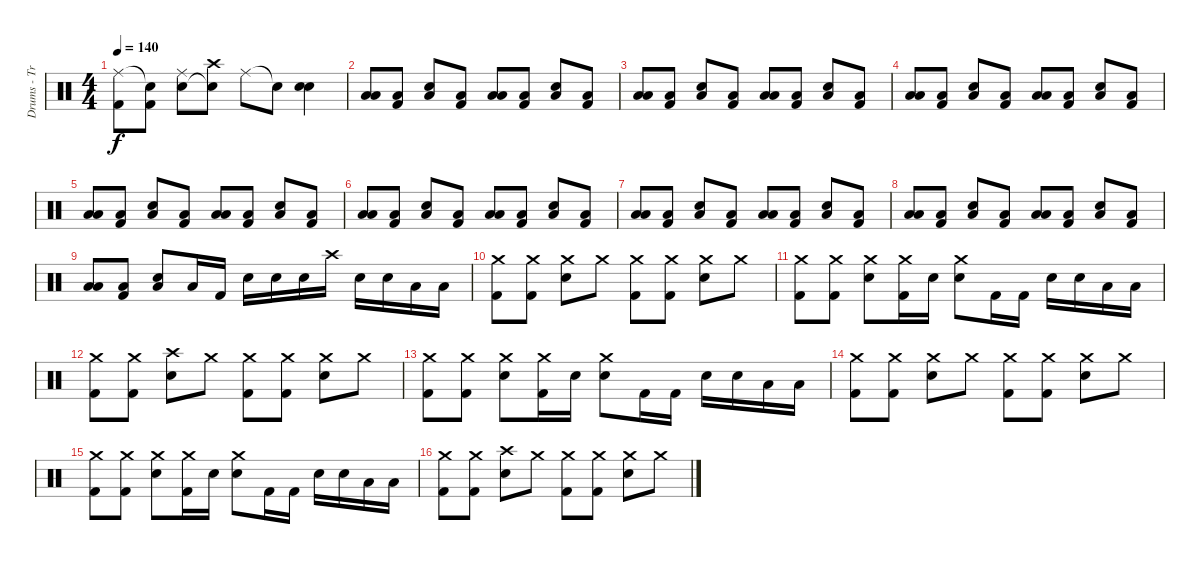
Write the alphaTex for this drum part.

\track ("Drums - Travis Barker" "Drums - Tr") {instrument percussion}
\staff {score}
\articulation defaults
\ts (4 4)
\tempo 140
\clef neutral
\ks c
("Ride (middle)" "Kick (hit) 2").8{dy f} ("Snare (hit)"{t} "Kick (hit) 2").8 ("Ride (middle)" "Snare (hit) 2").8 ("Crash high (hit)" "Snare (hit)"{t}).8 "Ride (middle)".8 "Snare (hit)"{t}.8 ("Snare (hit) 2" "Snare (hit) 2").4 |
("Low Tom (hit)" "Low Floor Tom (hit)").8 ("Low Floor Tom (hit)" "Kick (hit) 2").8 ("Snare (hit) 2" "Low Floor Tom (hit)").8 ("Low Floor Tom (hit)" "Kick (hit) 2").8 ("Low Tom (hit)" "Low Floor Tom (hit)").8 ("Low Floor Tom (hit)" "Kick (hit) 2").8 ("Snare (hit) 2" "Low Floor Tom (hit)").8 ("Kick (hit) 2" "Low Floor Tom (hit)").8 |
("Low Tom (hit)" "Low Floor Tom (hit)").8 ("Low Floor Tom (hit)" "Kick (hit) 2").8 ("Snare (hit) 2" "Low Floor Tom (hit)").8 ("Low Floor Tom (hit)" "Kick (hit) 2").8 ("Low Tom (hit)" "Low Floor Tom (hit)").8 ("Low Floor Tom (hit)" "Kick (hit) 2").8 ("Snare (hit) 2" "Low Floor Tom (hit)").8 ("Kick (hit) 2" "Low Floor Tom (hit)").8 |
("Low Tom (hit)" "Low Floor Tom (hit)").8 ("Low Floor Tom (hit)" "Kick (hit) 2").8 ("Snare (hit) 2" "Low Floor Tom (hit)").8 ("Low Floor Tom (hit)" "Kick (hit) 2").8 ("Low Tom (hit)" "Low Floor Tom (hit)").8 ("Low Floor Tom (hit)" "Kick (hit) 2").8 ("Snare (hit) 2" "Low Floor Tom (hit)").8 ("Kick (hit) 2" "Low Floor Tom (hit)").8 |
("Low Tom (hit)" "Low Floor Tom (hit)").8 ("Low Floor Tom (hit)" "Kick (hit) 2").8 ("Snare (hit) 2" "Low Floor Tom (hit)").8 ("Low Floor Tom (hit)" "Kick (hit) 2").8 ("Low Tom (hit)" "Low Floor Tom (hit)").8 ("Low Floor Tom (hit)" "Kick (hit) 2").8 ("Snare (hit) 2" "Low Floor Tom (hit)").8 ("Kick (hit) 2" "Low Floor Tom (hit)").8 |
("Low Tom (hit)" "Low Floor Tom (hit)").8 ("Low Floor Tom (hit)" "Kick (hit) 2").8 ("Snare (hit) 2" "Low Floor Tom (hit)").8 ("Low Floor Tom (hit)" "Kick (hit) 2").8 ("Low Tom (hit)" "Low Floor Tom (hit)").8 ("Low Floor Tom (hit)" "Kick (hit) 2").8 ("Snare (hit) 2" "Low Floor Tom (hit)").8 ("Kick (hit) 2" "Low Floor Tom (hit)").8 |
("Low Tom (hit)" "Low Floor Tom (hit)").8 ("Low Floor Tom (hit)" "Kick (hit) 2").8 ("Snare (hit) 2" "Low Floor Tom (hit)").8 ("Low Floor Tom (hit)" "Kick (hit) 2").8 ("Low Tom (hit)" "Low Floor Tom (hit)").8 ("Low Floor Tom (hit)" "Kick (hit) 2").8 ("Snare (hit) 2" "Low Floor Tom (hit)").8 ("Kick (hit) 2" "Low Floor Tom (hit)").8 |
("Low Tom (hit)" "Low Floor Tom (hit)").8 ("Low Floor Tom (hit)" "Kick (hit) 2").8 ("Snare (hit) 2" "Low Floor Tom (hit)").8 ("Low Floor Tom (hit)" "Kick (hit) 2").8 ("Low Tom (hit)" "Low Floor Tom (hit)").8 ("Low Floor Tom (hit)" "Kick (hit) 2").8 ("Snare (hit) 2" "Low Floor Tom (hit)").8 ("Kick (hit) 2" "Low Floor Tom (hit)").8 |
("Low Tom (hit)" "Low Floor Tom (hit)").8 ("Low Floor Tom (hit)" "Kick (hit) 2").8 ("Snare (hit) 2" "Low Floor Tom (hit)").8 "Low Floor Tom (hit)".16 "Kick (hit) 2".16 "Snare (hit) 2".16 "Snare (hit) 2".16 "Snare (hit) 2".16 "Crash high (hit)".16 "Snare (hit) 2".16 "Snare (hit) 2".16 "Low Tom (hit)".16 "Low Tom (hit)".16 |
("Crash medium (hit)" "Kick (hit) 2").8 ("Crash medium (hit)" "Kick (hit) 2").8 ("Crash medium (hit)" "Snare (hit) 2").8 "Crash medium (hit)".8 ("Crash medium (hit)" "Kick (hit) 2").8 ("Crash medium (hit)" "Kick (hit) 2").8 ("Crash medium (hit)" "Snare (hit) 2").8 "Crash medium (hit)".8 |
("Crash medium (hit)" "Kick (hit) 2").8 ("Crash medium (hit)" "Kick (hit) 2").8 ("Crash medium (hit)" "Snare (hit) 2").8 ("Crash medium (hit)" "Kick (hit) 2").16 "Snare (hit) 2".16 ("Crash medium (hit)" "Snare (hit) 2").8 "Kick (hit) 2".16 "Kick (hit) 2".16 "Snare (hit) 2".16 "Snare (hit) 2".16 "Low Tom (hit)".16 "Low Tom (hit)".16 |
("Crash medium (hit)" "Kick (hit) 2").8 ("Crash medium (hit)" "Kick (hit) 2").8 ("Crash high (hit)" "Snare (hit) 2").8 "Crash medium (hit)".8 ("Crash medium (hit)" "Kick (hit) 2").8 ("Crash medium (hit)" "Kick (hit) 2").8 ("Crash medium (hit)" "Snare (hit) 2").8 "Crash medium (hit)".8 |
("Crash medium (hit)" "Kick (hit) 2").8 ("Crash medium (hit)" "Kick (hit) 2").8 ("Crash medium (hit)" "Snare (hit) 2").8 ("Crash medium (hit)" "Kick (hit) 2").16 "Snare (hit) 2".16 ("Crash medium (hit)" "Snare (hit) 2").8 "Kick (hit) 2".16 "Kick (hit) 2".16 "Snare (hit) 2".16 "Snare (hit) 2".16 "Low Tom (hit)".16 "Low Tom (hit)".16 |
("Crash medium (hit)" "Kick (hit) 2").8 ("Crash medium (hit)" "Kick (hit) 2").8 ("Crash medium (hit)" "Snare (hit) 2").8 "Crash medium (hit)".8 ("Crash medium (hit)" "Kick (hit) 2").8 ("Crash medium (hit)" "Kick (hit) 2").8 ("Crash medium (hit)" "Snare (hit) 2").8 "Crash medium (hit)".8 |
("Crash medium (hit)" "Kick (hit) 2").8 ("Crash medium (hit)" "Kick (hit) 2").8 ("Crash medium (hit)" "Snare (hit) 2").8 ("Crash medium (hit)" "Kick (hit) 2").16 "Snare (hit) 2".16 ("Crash medium (hit)" "Snare (hit) 2").8 "Kick (hit) 2".16 "Kick (hit) 2".16 "Snare (hit) 2".16 "Snare (hit) 2".16 "Low Tom (hit)".16 "Low Tom (hit)".16 |
("Crash medium (hit)" "Kick (hit) 2").8 ("Crash medium (hit)" "Kick (hit) 2").8 ("Crash high (hit)" "Snare (hit) 2").8 "Crash medium (hit)".8 ("Crash medium (hit)" "Kick (hit) 2").8 ("Crash medium (hit)" "Kick (hit) 2").8 ("Crash medium (hit)" "Snare (hit) 2").8 "Crash medium (hit)".8
